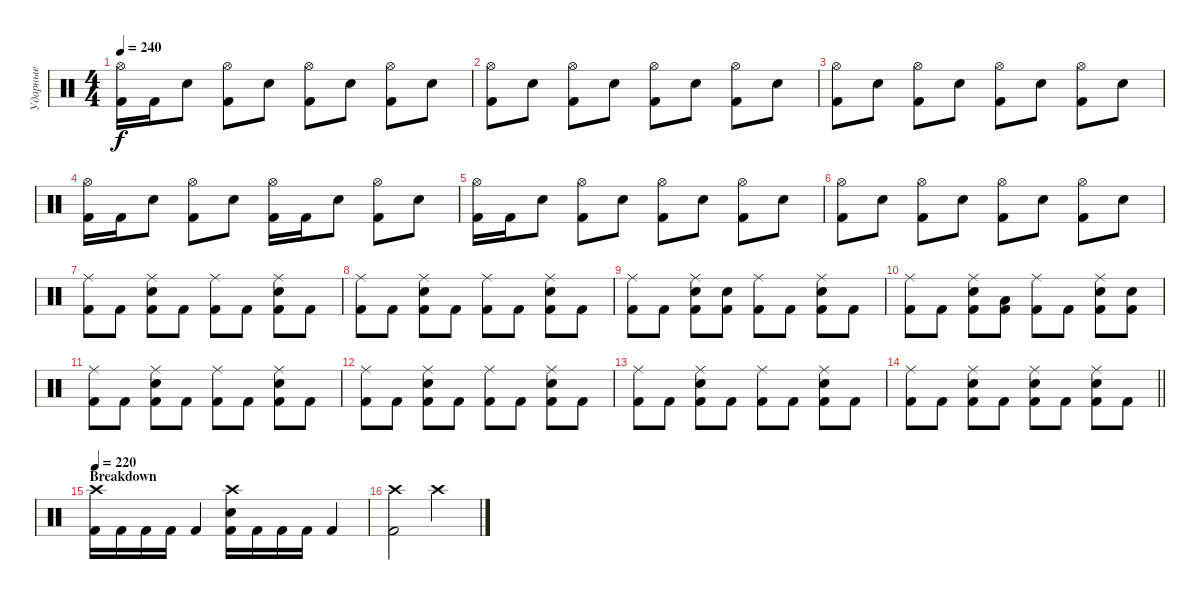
\track ("Ударные" "Ударные") {instrument percussion}
\staff {score}
\articulation defaults
\ts (4 4)
\tempo 240
\clef neutral
\ks c
("Hi-Hat (open)" "Kick (hit) 2").16{dy f} "Kick (hit) 2".16 "Electric Snare (hit)".8 ("Hi-Hat (open)" "Kick (hit) 2").8 "Electric Snare (hit)".8 ("Hi-Hat (open)" "Kick (hit) 2").8 "Electric Snare (hit)".8 ("Hi-Hat (open)" "Kick (hit) 2").8 "Electric Snare (hit)".8 |
("Hi-Hat (open)" "Kick (hit) 2").8 "Electric Snare (hit)".8 ("Hi-Hat (open)" "Kick (hit) 2").8 "Electric Snare (hit)".8 ("Hi-Hat (open)" "Kick (hit) 2").8 "Electric Snare (hit)".8 ("Hi-Hat (open)" "Kick (hit) 2").8 "Electric Snare (hit)".8 |
("Hi-Hat (open)" "Kick (hit) 2").8 "Electric Snare (hit)".8 ("Hi-Hat (open)" "Kick (hit) 2").8 "Electric Snare (hit)".8 ("Hi-Hat (open)" "Kick (hit) 2").8 "Electric Snare (hit)".8 ("Hi-Hat (open)" "Kick (hit) 2").8 "Electric Snare (hit)".8 |
("Hi-Hat (open)" "Kick (hit) 2").16 "Kick (hit) 2".16 "Electric Snare (hit)".8 ("Hi-Hat (open)" "Kick (hit) 2").8 "Electric Snare (hit)".8 ("Hi-Hat (open)" "Kick (hit) 2").16 "Kick (hit) 2".16 "Electric Snare (hit)".8 ("Hi-Hat (open)" "Kick (hit) 2").8 "Electric Snare (hit)".8 |
("Hi-Hat (open)" "Kick (hit) 2").16 "Kick (hit) 2".16 "Electric Snare (hit)".8 ("Hi-Hat (open)" "Kick (hit) 2").8 "Electric Snare (hit)".8 ("Hi-Hat (open)" "Kick (hit) 2").8 "Electric Snare (hit)".8 ("Hi-Hat (open)" "Kick (hit) 2").8 "Electric Snare (hit)".8 |
("Hi-Hat (open)" "Kick (hit) 2").8 "Electric Snare (hit)".8 ("Hi-Hat (open)" "Kick (hit) 2").8 "Electric Snare (hit)".8 ("Hi-Hat (open)" "Kick (hit) 2").8 "Electric Snare (hit)".8 ("Hi-Hat (open)" "Kick (hit) 2").8 "Electric Snare (hit)".8 |
("Ride (middle)" "Kick (hit) 2").8 "Kick (hit) 2".8 ("Ride (middle)" "Electric Snare (hit)" "Kick (hit) 2").8 "Kick (hit) 2".8 ("Ride (middle)" "Kick (hit) 2").8 "Kick (hit) 2".8 ("Ride (middle)" "Electric Snare (hit)" "Kick (hit) 2").8 "Kick (hit) 2".8 |
("Ride (middle)" "Kick (hit) 2").8 "Kick (hit) 2".8 ("Ride (middle)" "Electric Snare (hit)" "Kick (hit) 2").8 "Kick (hit) 2".8 ("Ride (middle)" "Kick (hit) 2").8 "Kick (hit) 2".8 ("Ride (middle)" "Electric Snare (hit)" "Kick (hit) 2").8 "Kick (hit) 2".8 |
("Ride (middle)" "Kick (hit) 2").8 "Kick (hit) 2".8 ("Ride (middle)" "Electric Snare (hit)" "Kick (hit) 2").8 ("Electric Snare (hit)" "Kick (hit) 2").8 ("Ride (middle)" "Kick (hit) 2").8 "Kick (hit) 2".8 ("Ride (middle)" "Electric Snare (hit)" "Kick (hit) 2").8 "Kick (hit) 2".8 |
("Ride (middle)" "Kick (hit) 2").8 "Kick (hit) 2".8 ("Ride (middle)" "Electric Snare (hit)" "Kick (hit) 2").8 ("Low Tom (hit)" "Kick (hit) 2").8 ("Ride (middle)" "Kick (hit) 2").8 "Kick (hit) 2".8 ("Ride (middle)" "Electric Snare (hit)" "Kick (hit) 2").8 ("Electric Snare (hit)" "Kick (hit) 2").8 |
("Ride (middle)" "Kick (hit) 2").8 "Kick (hit) 2".8 ("Ride (middle)" "Electric Snare (hit)" "Kick (hit) 2").8 "Kick (hit) 2".8 ("Ride (middle)" "Kick (hit) 2").8 "Kick (hit) 2".8 ("Ride (middle)" "Electric Snare (hit)" "Kick (hit) 2").8 "Kick (hit) 2".8 |
("Ride (middle)" "Kick (hit) 2").8 "Kick (hit) 2".8 ("Ride (middle)" "Electric Snare (hit)" "Kick (hit) 2").8 "Kick (hit) 2".8 ("Ride (middle)" "Kick (hit) 2").8 "Kick (hit) 2".8 ("Ride (middle)" "Electric Snare (hit)" "Kick (hit) 2").8 "Kick (hit) 2".8 |
("Ride (middle)" "Kick (hit) 2").8 "Kick (hit) 2".8 ("Ride (middle)" "Electric Snare (hit)" "Kick (hit) 2").8 "Kick (hit) 2".8 ("Ride (middle)" "Kick (hit) 2").8 "Kick (hit) 2".8 ("Ride (middle)" "Electric Snare (hit)" "Kick (hit) 2").8 "Kick (hit) 2".8 |
\barLineRight lightlight
("Ride (middle)" "Kick (hit) 2").8 "Kick (hit) 2".8 ("Ride (middle)" "Electric Snare (hit)" "Kick (hit) 2").8 "Kick (hit) 2".8 ("Ride (middle)" "Electric Snare (hit)" "Kick (hit) 2").8 "Kick (hit) 2".8 ("Ride (middle)" "Electric Snare (hit)" "Kick (hit) 2").8 "Kick (hit) 2".8 |
\section ("" "Breakdown")
\tempo 220
("Crash high (hit)" "Kick (hit) 2").16 "Kick (hit) 2".16 "Kick (hit) 2".16 "Kick (hit) 2".16 "Kick (hit) 2".4 ("Crash high (hit)" "Electric Snare (hit)" "Kick (hit) 2").16 "Kick (hit) 2".16 "Kick (hit) 2".16 "Kick (hit) 2".16 "Kick (hit) 2".4 |
("Crash high (hit)" "Kick (hit) 2").2 "Crash high (hit)".2
